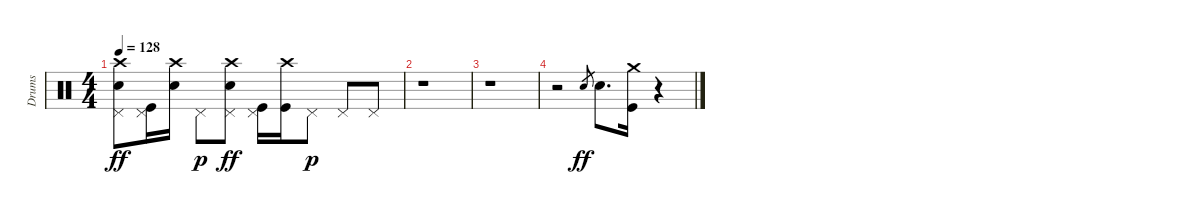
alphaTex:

\track ("Drums" "Drums") {instrument percussion}
\staff {score}
\articulation defaults
\ts (4 4)
\tempo 128
\clef neutral
\ks c
("Crash high (hit)" "Pedal Hi-Hat (hit)" "Snare (hit) 2").8{dy ff} ("Pedal Hi-Hat (hit)" "Kick (hit)").16 ("Crash high (hit)" "Snare (hit) 2").16 "Pedal Hi-Hat (hit)".8{dy p} ("Crash high (hit)" "Pedal Hi-Hat (hit)" "Snare (hit) 2").8{dy ff} ("Pedal Hi-Hat (hit)" "Kick (hit)").16 ("Crash high (hit)" "Kick (hit)").16 "Pedal Hi-Hat (hit)".8{dy p} "Pedal Hi-Hat (hit)".8 "Pedal Hi-Hat (hit)".8 |
r.1 |
r.1 |
r.2 "Snare (hit) 2".8{gr dy ff} "Snare (hit) 2".8{d} ("Crash medium (hit)" "Kick (hit)").16 r.4
